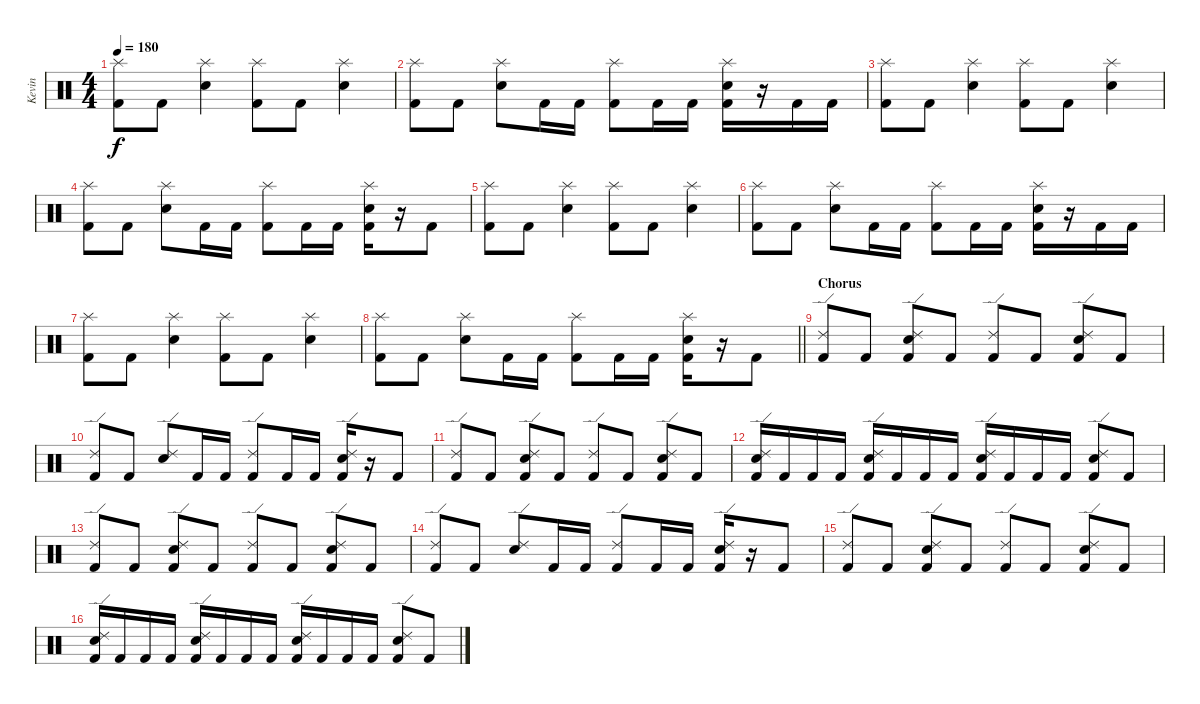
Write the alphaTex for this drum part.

\track ("Kevin" "Kevin") {instrument percussion}
\staff {score}
\articulation defaults
\ts (4 4)
\tempo 180
\clef neutral
\ks c
("Splash (hit)" "Kick (hit) 2").8{dy f} "Kick (hit) 2".8 ("Splash (hit)" "Electric Snare (hit)").4 ("Splash (hit)" "Kick (hit) 2").8 "Kick (hit) 2".8 ("Splash (hit)" "Electric Snare (hit)").4 |
("Splash (hit)" "Kick (hit) 2").8 "Kick (hit) 2".8 ("Splash (hit)" "Electric Snare (hit)").8 "Kick (hit) 2".16 "Kick (hit) 2".16 ("Splash (hit)" "Kick (hit) 2").8 "Kick (hit) 2".16 "Kick (hit) 2".16 ("Splash (hit)" "Electric Snare (hit)" "Kick (hit) 2").16 r.16 "Kick (hit) 2".16 "Kick (hit) 2".16 |
("Splash (hit)" "Kick (hit) 2").8 "Kick (hit) 2".8 ("Splash (hit)" "Electric Snare (hit)").4 ("Splash (hit)" "Kick (hit) 2").8 "Kick (hit) 2".8 ("Splash (hit)" "Electric Snare (hit)").4 |
("Splash (hit)" "Kick (hit) 2").8 "Kick (hit) 2".8 ("Splash (hit)" "Electric Snare (hit)").8 "Kick (hit) 2".16 "Kick (hit) 2".16 ("Splash (hit)" "Kick (hit) 2").8 "Kick (hit) 2".16 "Kick (hit) 2".16 ("Splash (hit)" "Electric Snare (hit)" "Kick (hit) 2").16 r.16 "Kick (hit) 2".8 |
("Splash (hit)" "Kick (hit) 2").8 "Kick (hit) 2".8 ("Splash (hit)" "Electric Snare (hit)").4 ("Splash (hit)" "Kick (hit) 2").8 "Kick (hit) 2".8 ("Splash (hit)" "Electric Snare (hit)").4 |
("Splash (hit)" "Kick (hit) 2").8 "Kick (hit) 2".8 ("Splash (hit)" "Electric Snare (hit)").8 "Kick (hit) 2".16 "Kick (hit) 2".16 ("Splash (hit)" "Kick (hit) 2").8 "Kick (hit) 2".16 "Kick (hit) 2".16 ("Splash (hit)" "Electric Snare (hit)" "Kick (hit) 2").16 r.16 "Kick (hit) 2".16 "Kick (hit) 2".16 |
("Splash (hit)" "Kick (hit) 2").8 "Kick (hit) 2".8 ("Splash (hit)" "Electric Snare (hit)").4 ("Splash (hit)" "Kick (hit) 2").8 "Kick (hit) 2".8 ("Splash (hit)" "Electric Snare (hit)").4 |
\barLineRight lightlight
("Splash (hit)" "Kick (hit) 2").8 "Kick (hit) 2".8 ("Splash (hit)" "Electric Snare (hit)").8 "Kick (hit) 2".16 "Kick (hit) 2".16 ("Splash (hit)" "Kick (hit) 2").8 "Kick (hit) 2".16 "Kick (hit) 2".16 ("Splash (hit)" "Electric Snare (hit)" "Kick (hit) 2").16 r.16 "Kick (hit) 2".8 |
\section ("" "Chorus")
("Ride (edge) 2" "Kick (hit) 2").8 "Kick (hit) 2".8 ("Ride (edge) 2" "Electric Snare (hit)" "Kick (hit) 2").8 "Kick (hit) 2".8 ("Ride (edge) 2" "Kick (hit) 2").8 "Kick (hit) 2".8 ("Ride (edge) 2" "Electric Snare (hit)" "Kick (hit) 2").8 "Kick (hit) 2".8 |
("Ride (edge) 2" "Kick (hit) 2").8 "Kick (hit) 2".8 ("Ride (edge) 2" "Electric Snare (hit)").8 "Kick (hit) 2".16 "Kick (hit) 2".16 ("Ride (edge) 2" "Kick (hit) 2").8 "Kick (hit) 2".16 "Kick (hit) 2".16 ("Ride (edge) 2" "Electric Snare (hit)" "Kick (hit) 2").16 r.16 "Kick (hit) 2".8 |
("Ride (edge) 2" "Kick (hit) 2").8 "Kick (hit) 2".8 ("Ride (edge) 2" "Electric Snare (hit)" "Kick (hit) 2").8 "Kick (hit) 2".8 ("Ride (edge) 2" "Kick (hit) 2").8 "Kick (hit) 2".8 ("Ride (edge) 2" "Electric Snare (hit)" "Kick (hit) 2").8 "Kick (hit) 2".8 |
("Ride (edge) 2" "Electric Snare (hit)" "Kick (hit) 2").16 "Kick (hit) 2".16 "Kick (hit) 2".16 "Kick (hit) 2".16 ("Ride (edge) 2" "Electric Snare (hit)" "Kick (hit) 2").16 "Kick (hit) 2".16 "Kick (hit) 2".16 "Kick (hit) 2".16 ("Ride (edge) 2" "Electric Snare (hit)" "Kick (hit) 2").16 "Kick (hit) 2".16 "Kick (hit) 2".16 "Kick (hit) 2".16 ("Ride (edge) 2" "Electric Snare (hit)" "Kick (hit) 2").8 "Kick (hit) 2".8 |
("Ride (edge) 2" "Kick (hit) 2").8 "Kick (hit) 2".8 ("Ride (edge) 2" "Electric Snare (hit)" "Kick (hit) 2").8 "Kick (hit) 2".8 ("Ride (edge) 2" "Kick (hit) 2").8 "Kick (hit) 2".8 ("Ride (edge) 2" "Electric Snare (hit)" "Kick (hit) 2").8 "Kick (hit) 2".8 |
("Ride (edge) 2" "Kick (hit) 2").8 "Kick (hit) 2".8 ("Ride (edge) 2" "Electric Snare (hit)").8 "Kick (hit) 2".16 "Kick (hit) 2".16 ("Ride (edge) 2" "Kick (hit) 2").8 "Kick (hit) 2".16 "Kick (hit) 2".16 ("Ride (edge) 2" "Electric Snare (hit)" "Kick (hit) 2").16 r.16 "Kick (hit) 2".8 |
("Ride (edge) 2" "Kick (hit) 2").8 "Kick (hit) 2".8 ("Ride (edge) 2" "Electric Snare (hit)" "Kick (hit) 2").8 "Kick (hit) 2".8 ("Ride (edge) 2" "Kick (hit) 2").8 "Kick (hit) 2".8 ("Ride (edge) 2" "Electric Snare (hit)" "Kick (hit) 2").8 "Kick (hit) 2".8 |
("Ride (edge) 2" "Electric Snare (hit)" "Kick (hit) 2").16 "Kick (hit) 2".16 "Kick (hit) 2".16 "Kick (hit) 2".16 ("Ride (edge) 2" "Electric Snare (hit)" "Kick (hit) 2").16 "Kick (hit) 2".16 "Kick (hit) 2".16 "Kick (hit) 2".16 ("Ride (edge) 2" "Electric Snare (hit)" "Kick (hit) 2").16 "Kick (hit) 2".16 "Kick (hit) 2".16 "Kick (hit) 2".16 ("Ride (edge) 2" "Electric Snare (hit)" "Kick (hit) 2").8 "Kick (hit) 2".8
